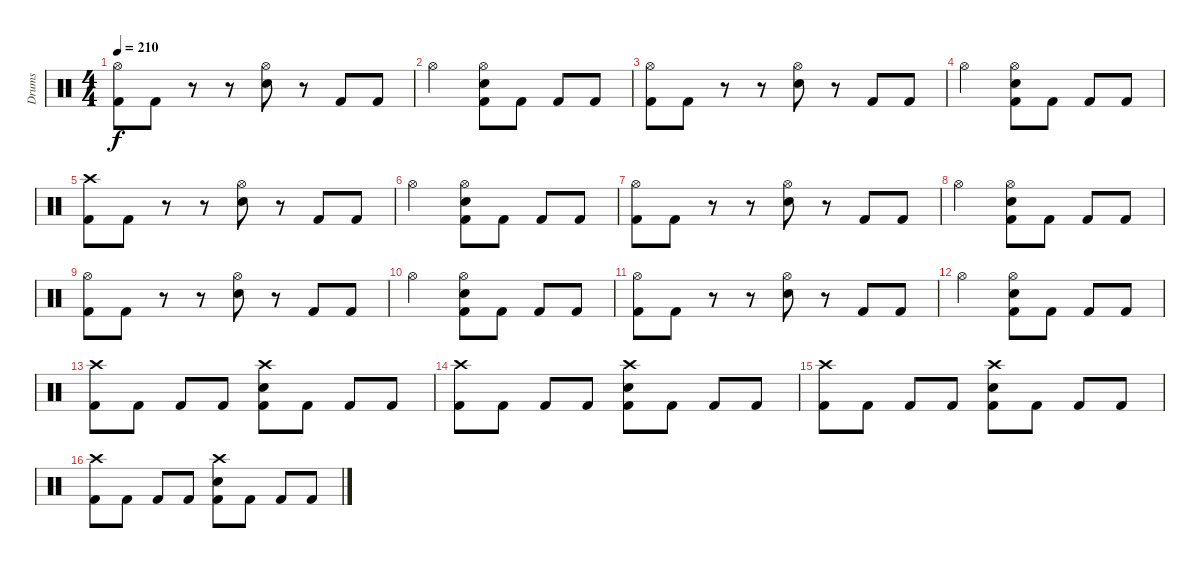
\track ("Drums" "Drums") {instrument percussion}
\staff {score}
\articulation defaults
\ts (4 4)
\tempo 210
\clef neutral
\ks c
("Hi-Hat (open)" "Kick (hit) 2").8{dy f} "Kick (hit) 2".8 r.8 r.8 ("Hi-Hat (open)" "Electric Snare (hit)").8 r.8 "Kick (hit) 2".8 "Kick (hit) 2".8 |
"Hi-Hat (open)".2 ("Hi-Hat (open)" "Electric Snare (hit)" "Kick (hit) 2").8 "Kick (hit) 2".8 "Kick (hit) 2".8 "Kick (hit) 2".8 |
("Hi-Hat (open)" "Kick (hit) 2").8 "Kick (hit) 2".8 r.8 r.8 ("Hi-Hat (open)" "Electric Snare (hit)").8 r.8 "Kick (hit) 2".8 "Kick (hit) 2".8 |
"Hi-Hat (open)".2 ("Hi-Hat (open)" "Electric Snare (hit)" "Kick (hit) 2").8 "Kick (hit) 2".8 "Kick (hit) 2".8 "Kick (hit) 2".8 |
("Crash high (hit)" "Kick (hit) 2").8 "Kick (hit) 2".8 r.8 r.8 ("Hi-Hat (open)" "Electric Snare (hit)").8 r.8 "Kick (hit) 2".8 "Kick (hit) 2".8 |
"Hi-Hat (open)".2 ("Hi-Hat (open)" "Electric Snare (hit)" "Kick (hit) 2").8 "Kick (hit) 2".8 "Kick (hit) 2".8 "Kick (hit) 2".8 |
("Hi-Hat (open)" "Kick (hit) 2").8 "Kick (hit) 2".8 r.8 r.8 ("Hi-Hat (open)" "Electric Snare (hit)").8 r.8 "Kick (hit) 2".8 "Kick (hit) 2".8 |
"Hi-Hat (open)".2 ("Hi-Hat (open)" "Electric Snare (hit)" "Kick (hit) 2").8 "Kick (hit) 2".8 "Kick (hit) 2".8 "Kick (hit) 2".8 |
("Hi-Hat (open)" "Kick (hit) 2").8 "Kick (hit) 2".8 r.8 r.8 ("Hi-Hat (open)" "Electric Snare (hit)").8 r.8 "Kick (hit) 2".8 "Kick (hit) 2".8 |
"Hi-Hat (open)".2 ("Hi-Hat (open)" "Electric Snare (hit)" "Kick (hit) 2").8 "Kick (hit) 2".8 "Kick (hit) 2".8 "Kick (hit) 2".8 |
("Hi-Hat (open)" "Kick (hit) 2").8 "Kick (hit) 2".8 r.8 r.8 ("Hi-Hat (open)" "Electric Snare (hit)").8 r.8 "Kick (hit) 2".8 "Kick (hit) 2".8 |
"Hi-Hat (open)".2 ("Hi-Hat (open)" "Electric Snare (hit)" "Kick (hit) 2").8 "Kick (hit) 2".8 "Kick (hit) 2".8 "Kick (hit) 2".8 |
("Crash high (hit)" "Kick (hit) 2").8 "Kick (hit) 2".8 "Kick (hit) 2".8 "Kick (hit) 2".8 ("Crash high (hit)" "Electric Snare (hit)" "Kick (hit) 2").8 "Kick (hit) 2".8 "Kick (hit) 2".8 "Kick (hit) 2".8 |
("Crash high (hit)" "Kick (hit) 2").8 "Kick (hit) 2".8 "Kick (hit) 2".8 "Kick (hit) 2".8 ("Crash high (hit)" "Electric Snare (hit)" "Kick (hit) 2").8 "Kick (hit) 2".8 "Kick (hit) 2".8 "Kick (hit) 2".8 |
("Crash high (hit)" "Kick (hit) 2").8 "Kick (hit) 2".8 "Kick (hit) 2".8 "Kick (hit) 2".8 ("Crash high (hit)" "Electric Snare (hit)" "Kick (hit) 2").8 "Kick (hit) 2".8 "Kick (hit) 2".8 "Kick (hit) 2".8 |
("Crash high (hit)" "Kick (hit) 2").8 "Kick (hit) 2".8 "Kick (hit) 2".8 "Kick (hit) 2".8 ("Crash high (hit)" "Electric Snare (hit)" "Kick (hit) 2").8 "Kick (hit) 2".8 "Kick (hit) 2".8 "Kick (hit) 2".8
